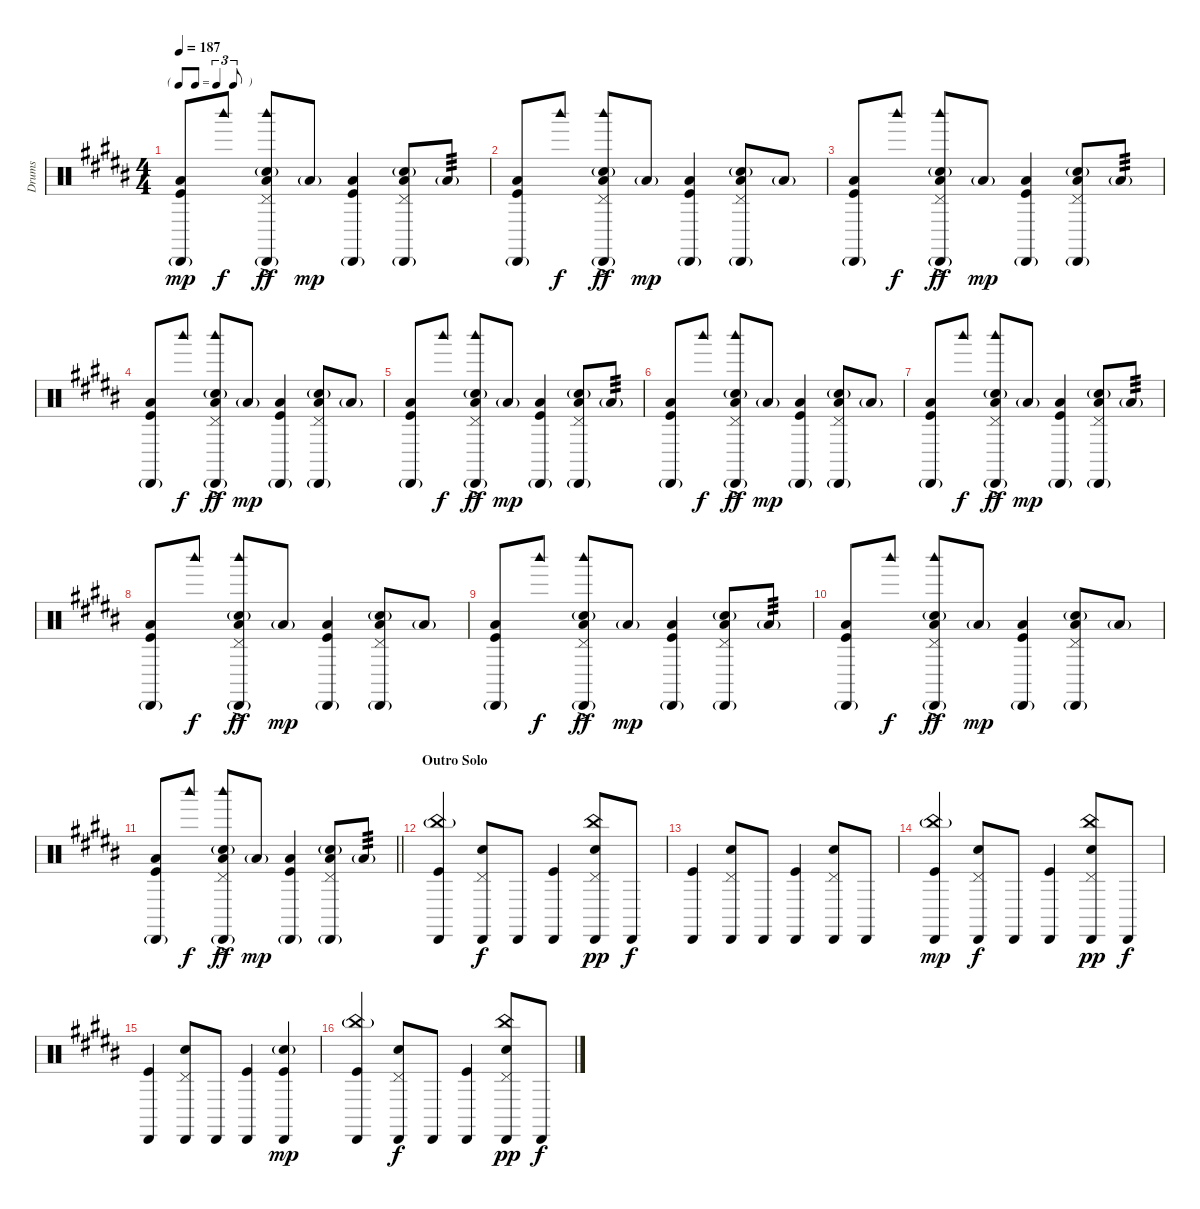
\track ("Drums" "Drums") {instrument percussion}
\staff {score}
\articulation defaults
\ts (4 4)
\tf triplet8th
\tempo 187
\clef neutral
\ks b
("Cabasa (hit)"{g} "Low Floor Tom (hit)" "Kick (hit)").8{dy mp} "Woodblock high (hit)".8{dy f} ("Pedal Hi-Hat (hit)" "Cabasa (hit)"{g} "Snare (hit) 2"{g} "Woodblock high (hit)"{ac} "Low Floor Tom (hit)").8{dy ff} "Low Floor Tom (hit)"{g}.8{dy mp} ("Cabasa (hit)"{g} "Low Floor Tom (hit)" "Kick (hit)").4 ("Pedal Hi-Hat (hit)" "Cabasa (hit)"{g} "Snare (hit) 2"{g} "Low Floor Tom (hit)").8 "Low Floor Tom (hit)"{g}.8{tp 3} |
("Cabasa (hit)"{g} "Low Floor Tom (hit)" "Kick (hit)").8 "Woodblock high (hit)".8{dy f} ("Pedal Hi-Hat (hit)" "Cabasa (hit)"{g} "Snare (hit) 2"{g} "Woodblock high (hit)"{ac} "Low Floor Tom (hit)").8{dy ff} "Low Floor Tom (hit)"{g}.8{dy mp} ("Cabasa (hit)"{g} "Low Floor Tom (hit)" "Kick (hit)").4 ("Pedal Hi-Hat (hit)" "Cabasa (hit)"{g} "Snare (hit) 2"{g} "Low Floor Tom (hit)").8 "Low Floor Tom (hit)"{g}.8 |
("Cabasa (hit)"{g} "Low Floor Tom (hit)" "Kick (hit)").8 "Woodblock high (hit)".8{dy f} ("Pedal Hi-Hat (hit)" "Cabasa (hit)"{g} "Snare (hit) 2"{g} "Woodblock high (hit)"{ac} "Low Floor Tom (hit)").8{dy ff} "Low Floor Tom (hit)"{g}.8{dy mp} ("Cabasa (hit)"{g} "Low Floor Tom (hit)" "Kick (hit)").4 ("Pedal Hi-Hat (hit)" "Cabasa (hit)"{g} "Snare (hit) 2"{g} "Low Floor Tom (hit)").8 "Low Floor Tom (hit)"{g}.8{tp 3} |
("Cabasa (hit)"{g} "Low Floor Tom (hit)" "Kick (hit)").8 "Woodblock high (hit)".8{dy f} ("Pedal Hi-Hat (hit)" "Cabasa (hit)"{g} "Snare (hit) 2"{g} "Woodblock high (hit)"{ac} "Low Floor Tom (hit)").8{dy ff} "Low Floor Tom (hit)"{g}.8{dy mp} ("Cabasa (hit)"{g} "Low Floor Tom (hit)" "Kick (hit)").4 ("Pedal Hi-Hat (hit)" "Cabasa (hit)"{g} "Snare (hit) 2"{g} "Low Floor Tom (hit)").8 "Low Floor Tom (hit)"{g}.8 |
("Cabasa (hit)"{g} "Low Floor Tom (hit)" "Kick (hit)").8 "Woodblock high (hit)".8{dy f} ("Pedal Hi-Hat (hit)" "Cabasa (hit)"{g} "Snare (hit) 2"{g} "Woodblock high (hit)"{ac} "Low Floor Tom (hit)").8{dy ff} "Low Floor Tom (hit)"{g}.8{dy mp} ("Cabasa (hit)"{g} "Low Floor Tom (hit)" "Kick (hit)").4 ("Pedal Hi-Hat (hit)" "Cabasa (hit)"{g} "Snare (hit) 2"{g} "Low Floor Tom (hit)").8 "Low Floor Tom (hit)"{g}.8{tp 3} |
("Cabasa (hit)"{g} "Low Floor Tom (hit)" "Kick (hit)").8 "Woodblock high (hit)".8{dy f} ("Pedal Hi-Hat (hit)" "Cabasa (hit)"{g} "Snare (hit) 2"{g} "Woodblock high (hit)"{ac} "Low Floor Tom (hit)").8{dy ff} "Low Floor Tom (hit)"{g}.8{dy mp} ("Cabasa (hit)"{g} "Low Floor Tom (hit)" "Kick (hit)").4 ("Pedal Hi-Hat (hit)" "Cabasa (hit)"{g} "Snare (hit) 2"{g} "Low Floor Tom (hit)").8 "Low Floor Tom (hit)"{g}.8 |
("Cabasa (hit)"{g} "Low Floor Tom (hit)" "Kick (hit)").8 "Woodblock high (hit)".8{dy f} ("Pedal Hi-Hat (hit)" "Cabasa (hit)"{g} "Snare (hit) 2"{g} "Woodblock high (hit)"{ac} "Low Floor Tom (hit)").8{dy ff} "Low Floor Tom (hit)"{g}.8{dy mp} ("Cabasa (hit)"{g} "Low Floor Tom (hit)" "Kick (hit)").4 ("Pedal Hi-Hat (hit)" "Cabasa (hit)"{g} "Snare (hit) 2"{g} "Low Floor Tom (hit)").8 "Low Floor Tom (hit)"{g}.8{tp 3} |
("Cabasa (hit)"{g} "Low Floor Tom (hit)" "Kick (hit)").8 "Woodblock high (hit)".8{dy f} ("Pedal Hi-Hat (hit)" "Cabasa (hit)"{g} "Snare (hit) 2"{g} "Woodblock high (hit)"{ac} "Low Floor Tom (hit)").8{dy ff} "Low Floor Tom (hit)"{g}.8{dy mp} ("Cabasa (hit)"{g} "Low Floor Tom (hit)" "Kick (hit)").4 ("Pedal Hi-Hat (hit)" "Cabasa (hit)"{g} "Snare (hit) 2"{g} "Low Floor Tom (hit)").8 "Low Floor Tom (hit)"{g}.8 |
("Cabasa (hit)"{g} "Low Floor Tom (hit)" "Kick (hit)").8 "Woodblock high (hit)".8{dy f} ("Pedal Hi-Hat (hit)" "Cabasa (hit)"{g} "Snare (hit) 2"{g} "Woodblock high (hit)"{ac} "Low Floor Tom (hit)").8{dy ff} "Low Floor Tom (hit)"{g}.8{dy mp} ("Cabasa (hit)"{g} "Low Floor Tom (hit)" "Kick (hit)").4 ("Pedal Hi-Hat (hit)" "Cabasa (hit)"{g} "Snare (hit) 2"{g} "Low Floor Tom (hit)").8 "Low Floor Tom (hit)"{g}.8{tp 3} |
("Cabasa (hit)"{g} "Low Floor Tom (hit)" "Kick (hit)").8 "Woodblock high (hit)".8{dy f} ("Pedal Hi-Hat (hit)" "Cabasa (hit)"{g} "Snare (hit) 2"{g} "Woodblock high (hit)"{ac} "Low Floor Tom (hit)").8{dy ff} "Low Floor Tom (hit)"{g}.8{dy mp} ("Cabasa (hit)"{g} "Low Floor Tom (hit)" "Kick (hit)").4 ("Pedal Hi-Hat (hit)" "Cabasa (hit)"{g} "Snare (hit) 2"{g} "Low Floor Tom (hit)").8 "Low Floor Tom (hit)"{g}.8 |
\barLineRight lightlight
("Cabasa (hit)"{g} "Low Floor Tom (hit)" "Kick (hit)").8 "Woodblock high (hit)".8{dy f} ("Pedal Hi-Hat (hit)" "Cabasa (hit)"{g} "Snare (hit) 2"{g} "Woodblock high (hit)"{ac} "Low Floor Tom (hit)").8{dy ff} "Low Floor Tom (hit)"{g}.8{dy mp} ("Cabasa (hit)"{g} "Low Floor Tom (hit)" "Kick (hit)").4 ("Pedal Hi-Hat (hit)" "Cabasa (hit)"{g} "Snare (hit) 2"{g} "Low Floor Tom (hit)").8 "Low Floor Tom (hit)"{g}.8{tp 3} |
\section ("" "Outro Solo")
("China (hit)"{g} "Cabasa (hit)" "Kick (hit)").4 ("Pedal Hi-Hat (hit)" "Cabasa (hit)" "Snare (hit) 2").8{dy f} "Cabasa (hit)".8 ("Cabasa (hit)" "Kick (hit)").4 ("Pedal Hi-Hat (hit)" "Cabasa (hit)" "Snare (hit) 2" "China (hit)").8{dy pp} "Cabasa (hit)".8{dy f} |
("Cabasa (hit)" "Kick (hit)").4 ("Pedal Hi-Hat (hit)" "Cabasa (hit)" "Snare (hit) 2").8 "Cabasa (hit)".8 ("Cabasa (hit)" "Kick (hit)").4 ("Pedal Hi-Hat (hit)" "Cabasa (hit)" "Snare (hit) 2").8 "Cabasa (hit)".8 |
("China (hit)"{g} "Cabasa (hit)" "Kick (hit)").4{dy mp} ("Pedal Hi-Hat (hit)" "Cabasa (hit)" "Snare (hit) 2").8{dy f} "Cabasa (hit)".8 ("Cabasa (hit)" "Kick (hit)").4 ("Pedal Hi-Hat (hit)" "Cabasa (hit)" "Snare (hit) 2" "China (hit)").8{dy pp} "Cabasa (hit)".8{dy f} |
("Cabasa (hit)" "Kick (hit)").4 ("Pedal Hi-Hat (hit)" "Cabasa (hit)" "Snare (hit) 2").8 "Cabasa (hit)".8 ("Cabasa (hit)" "Kick (hit)").4 ("Cabasa (hit)" "Snare (hit) 2"{g} "Kick (hit)").4{dy mp} |
("China (hit)"{g} "Cabasa (hit)" "Kick (hit)").4 ("Pedal Hi-Hat (hit)" "Cabasa (hit)" "Snare (hit) 2").8{dy f} "Cabasa (hit)".8 ("Cabasa (hit)" "Kick (hit)").4 ("Pedal Hi-Hat (hit)" "Cabasa (hit)" "Snare (hit) 2" "China (hit)").8{dy pp} "Cabasa (hit)".8{dy f}
